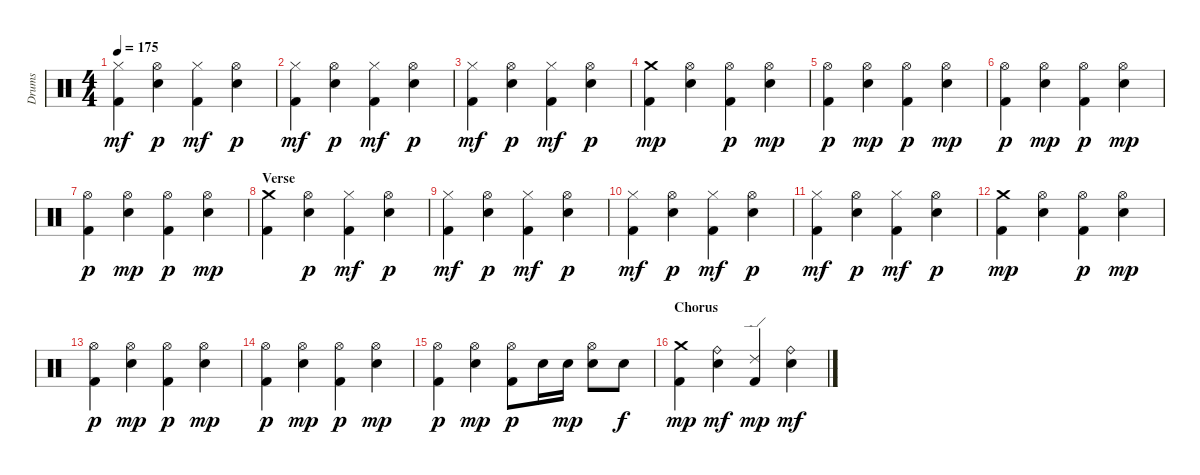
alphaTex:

\track ("Drums" "Drums") {instrument percussion}
\staff {score}
\articulation defaults
\ts (4 4)
\tempo 175
\clef neutral
\ks c
("Hi-Hat (closed)" "Kick (hit) 2").4{dy mf} ("Hi-Hat (open)" "Electric Snare (hit)").4{dy p} ("Hi-Hat (closed)" "Kick (hit) 2").4{dy mf} ("Hi-Hat (open)" "Electric Snare (hit)").4{dy p} |
("Hi-Hat (closed)" "Kick (hit) 2").4{dy mf} ("Hi-Hat (open)" "Electric Snare (hit)").4{dy p} ("Hi-Hat (closed)" "Kick (hit) 2").4{dy mf} ("Hi-Hat (open)" "Electric Snare (hit)").4{dy p} |
("Hi-Hat (closed)" "Kick (hit) 2").4{dy mf} ("Hi-Hat (open)" "Electric Snare (hit)").4{dy p} ("Hi-Hat (closed)" "Kick (hit) 2").4{dy mf} ("Hi-Hat (open)" "Electric Snare (hit)").4{dy p} |
("Crash medium (hit)" "Kick (hit) 2").4{dy mp} ("Hi-Hat (open)" "Electric Snare (hit)").4 ("Hi-Hat (open)" "Kick (hit) 2").4{dy p} ("Hi-Hat (open)" "Electric Snare (hit)").4{dy mp} |
("Hi-Hat (open)" "Kick (hit) 2").4{dy p} ("Hi-Hat (open)" "Electric Snare (hit)").4{dy mp} ("Hi-Hat (open)" "Kick (hit) 2").4{dy p} ("Hi-Hat (open)" "Electric Snare (hit)").4{dy mp} |
("Hi-Hat (open)" "Kick (hit) 2").4{dy p} ("Hi-Hat (open)" "Electric Snare (hit)").4{dy mp} ("Hi-Hat (open)" "Kick (hit) 2").4{dy p} ("Hi-Hat (open)" "Electric Snare (hit)").4{dy mp} |
("Hi-Hat (open)" "Kick (hit) 2").4{dy p} ("Hi-Hat (open)" "Electric Snare (hit)").4{dy mp} ("Hi-Hat (open)" "Kick (hit) 2").4{dy p} ("Hi-Hat (open)" "Electric Snare (hit)").4{dy mp} |
\section ("" "Verse")
("Crash medium (hit)" "Kick (hit) 2").4 ("Hi-Hat (open)" "Electric Snare (hit)").4{dy p} ("Hi-Hat (closed)" "Kick (hit) 2").4{dy mf} ("Hi-Hat (open)" "Electric Snare (hit)").4{dy p} |
("Hi-Hat (closed)" "Kick (hit) 2").4{dy mf} ("Hi-Hat (open)" "Electric Snare (hit)").4{dy p} ("Hi-Hat (closed)" "Kick (hit) 2").4{dy mf} ("Hi-Hat (open)" "Electric Snare (hit)").4{dy p} |
("Hi-Hat (closed)" "Kick (hit) 2").4{dy mf} ("Hi-Hat (open)" "Electric Snare (hit)").4{dy p} ("Hi-Hat (closed)" "Kick (hit) 2").4{dy mf} ("Hi-Hat (open)" "Electric Snare (hit)").4{dy p} |
("Hi-Hat (closed)" "Kick (hit) 2").4{dy mf} ("Hi-Hat (open)" "Electric Snare (hit)").4{dy p} ("Hi-Hat (closed)" "Kick (hit) 2").4{dy mf} ("Hi-Hat (open)" "Electric Snare (hit)").4{dy p} |
("Crash medium (hit)" "Kick (hit) 2").4{dy mp} ("Hi-Hat (open)" "Electric Snare (hit)").4 ("Hi-Hat (open)" "Kick (hit) 2").4{dy p} ("Hi-Hat (open)" "Electric Snare (hit)").4{dy mp} |
("Hi-Hat (open)" "Kick (hit) 2").4{dy p} ("Hi-Hat (open)" "Electric Snare (hit)").4{dy mp} ("Hi-Hat (open)" "Kick (hit) 2").4{dy p} ("Hi-Hat (open)" "Electric Snare (hit)").4{dy mp} |
("Hi-Hat (open)" "Kick (hit) 2").4{dy p} ("Hi-Hat (open)" "Electric Snare (hit)").4{dy mp} ("Hi-Hat (open)" "Kick (hit) 2").4{dy p} ("Hi-Hat (open)" "Electric Snare (hit)").4{dy mp} |
("Hi-Hat (open)" "Kick (hit) 2").4{dy p} ("Hi-Hat (open)" "Electric Snare (hit)").4{dy mp} ("Hi-Hat (open)" "Kick (hit) 2").8{dy p} "Electric Snare (hit)".16 "Electric Snare (hit)".16{dy mp} ("Hi-Hat (open)" "Electric Snare (hit)").8 "Electric Snare (hit)".8{dy f} |
\section ("" "Chorus")
("Crash medium (hit)" "Kick (hit) 2").4{dy mp} ("Ride (bell)" "Electric Snare (hit)").4{dy mf} ("Ride (edge) 2" "Kick (hit) 2").4{dy mp} ("Ride (bell)" "Electric Snare (hit)").4{dy mf}
